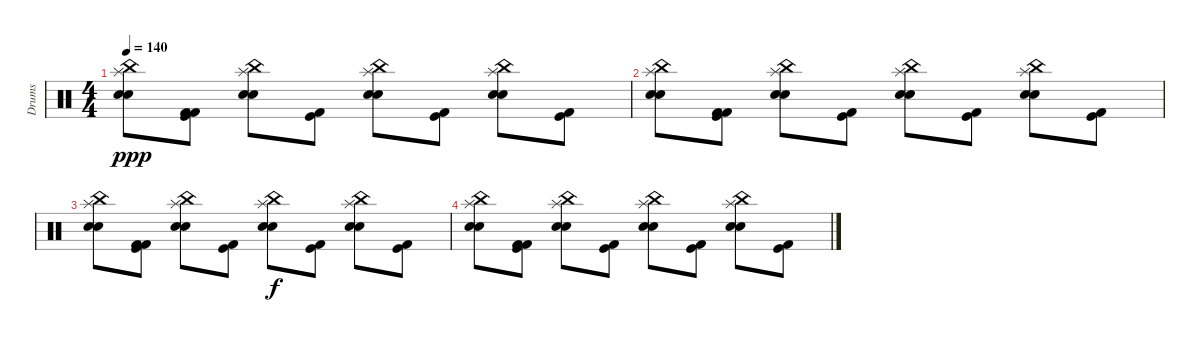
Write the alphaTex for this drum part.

\track ("Drums" "Drums") {instrument percussion}
\staff {score}
\articulation defaults
\ts (4 4)
\tempo 140
\clef neutral
\ks c
("China (hit)" "Snare (hit) 2" "Electric Snare (hit)" "Splash (hit)").8{dy ppp} ("Kick (hit) 2" "Kick (hit) 2" "Kick (hit)").8 ("Splash (hit)" "Electric Snare (hit)" "Snare (hit) 2" "China (hit)").8 ("Kick (hit)" "Kick (hit) 2").8 ("China (hit)" "Splash (hit)" "Electric Snare (hit)" "Snare (hit) 2").8 ("Kick (hit)" "Kick (hit) 2").8 ("Snare (hit) 2" "Electric Snare (hit)" "Splash (hit)" "China (hit)").8 ("Kick (hit)" "Kick (hit) 2").8 |
("China (hit)" "Snare (hit) 2" "Electric Snare (hit)" "Splash (hit)").8 ("Kick (hit) 2" "Kick (hit) 2" "Kick (hit)").8 ("Splash (hit)" "Electric Snare (hit)" "Snare (hit) 2" "China (hit)").8 ("Kick (hit) 2" "Kick (hit)").8 ("China (hit)" "Splash (hit)" "Electric Snare (hit)" "Snare (hit) 2").8 ("Kick (hit)" "Kick (hit) 2").8 ("Snare (hit) 2" "Electric Snare (hit)" "Splash (hit)" "China (hit)").8 ("Kick (hit)" "Kick (hit) 2").8 |
("China (hit)" "Snare (hit) 2" "Electric Snare (hit)" "Splash (hit)").8 ("Kick (hit) 2" "Kick (hit) 2" "Kick (hit)").8 ("Splash (hit)" "Electric Snare (hit)" "Snare (hit) 2" "China (hit)").8 ("Kick (hit)" "Kick (hit) 2").8 ("China (hit)" "Splash (hit)" "Electric Snare (hit)" "Snare (hit) 2").8{dy f} ("Kick (hit)" "Kick (hit) 2").8 ("Snare (hit) 2" "Electric Snare (hit)" "Splash (hit)" "China (hit)").8 ("Kick (hit)" "Kick (hit) 2").8 |
("China (hit)" "Snare (hit) 2" "Electric Snare (hit)" "Splash (hit)").8 ("Kick (hit) 2" "Kick (hit) 2" "Kick (hit)").8 ("Splash (hit)" "Electric Snare (hit)" "Snare (hit) 2" "China (hit)").8 ("Kick (hit) 2" "Kick (hit)").8 ("Splash (hit)" "Electric Snare (hit)" "Snare (hit) 2" "China (hit)").8 ("Kick (hit) 2" "Kick (hit)").8 ("Snare (hit) 2" "Electric Snare (hit)" "Splash (hit)" "China (hit)").8 ("Kick (hit)" "Kick (hit) 2").8
